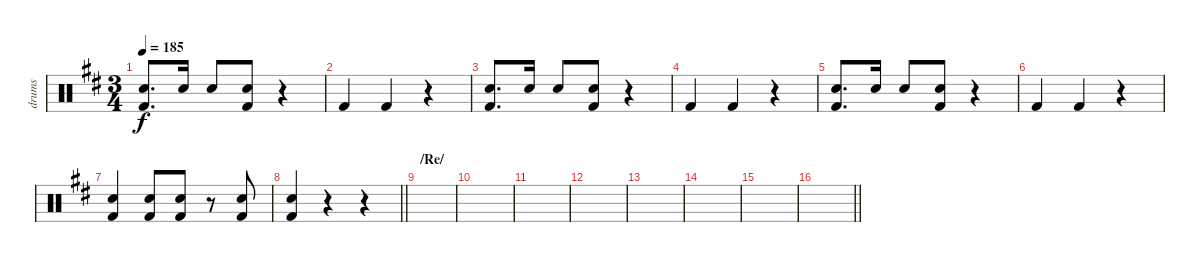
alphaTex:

\track ("drums" "drums") {instrument percussion}
\staff {score}
\articulation defaults
\ts (3 4)
\tempo 185
\clef neutral
\ks d
("Kick (hit) 2" "Electric Snare (hit)").8{d dy f} "Electric Snare (hit)".16 "Electric Snare (hit)".8 ("Kick (hit) 2" "Electric Snare (hit)").8 r.4 |
"Kick (hit) 2".4 "Kick (hit) 2".4 r.4 |
("Kick (hit) 2" "Electric Snare (hit)").8{d} "Electric Snare (hit)".16 "Electric Snare (hit)".8 ("Kick (hit) 2" "Electric Snare (hit)").8 r.4 |
"Kick (hit) 2".4 "Kick (hit) 2".4 r.4 |
("Kick (hit) 2" "Electric Snare (hit)").8{d} "Electric Snare (hit)".16 "Electric Snare (hit)".8 ("Kick (hit) 2" "Electric Snare (hit)").8 r.4 |
"Kick (hit) 2".4 "Kick (hit) 2".4 r.4 |
("Kick (hit) 2" "Electric Snare (hit)").4 ("Kick (hit) 2" "Electric Snare (hit)").8 ("Kick (hit) 2" "Electric Snare (hit)").8 r.8 ("Kick (hit) 2" "Electric Snare (hit)").8 |
\barLineRight lightlight
("Kick (hit) 2" "Electric Snare (hit)").4 r.4 r.4 |
\section ("" "/Re/")
|
|
|
|
|
|
|
\barLineRight lightlight
